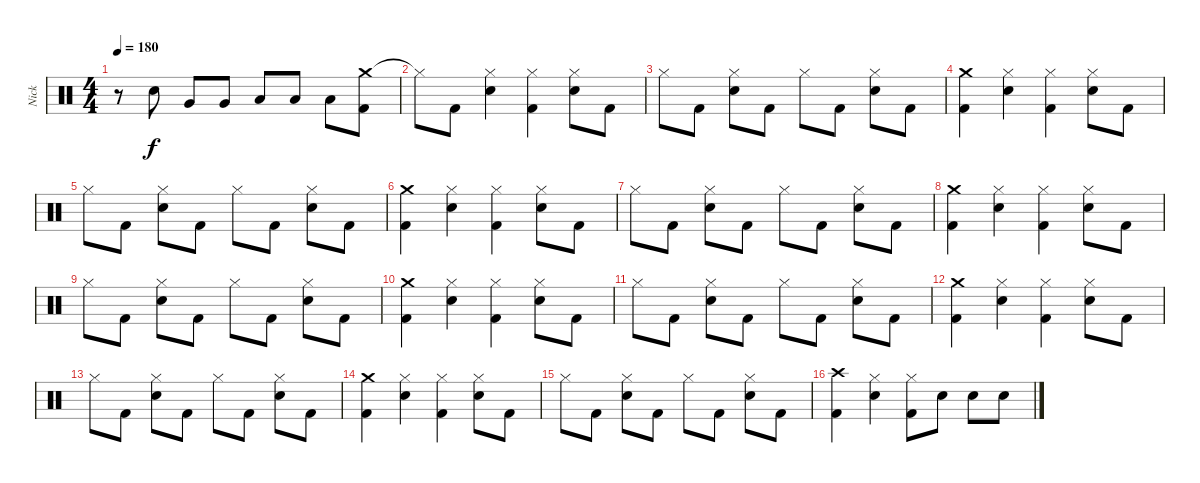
\track ("Nick" "Nick") {instrument percussion}
\staff {score}
\articulation defaults
\ts (4 4)
\tempo 180
\clef neutral
\ks c
r.8{dy f} "Electric Snare (hit)".8 "Very Low Tom (hit)".8 "Very Low Tom (hit)".8 "Low Floor Tom (hit)".8 "Low Floor Tom (hit)".8 "Low Floor Tom (hit)".8 ("Crash medium (hit)" "Kick (hit) 2").8 |
"Hi-Hat (closed)"{t}.8 "Kick (hit) 2".8 ("Hi-Hat (closed)" "Electric Snare (hit)").4 ("Hi-Hat (closed)" "Kick (hit) 2").4 ("Hi-Hat (closed)" "Electric Snare (hit)").8 "Kick (hit) 2".8 |
"Hi-Hat (closed)".8 "Kick (hit) 2".8 ("Hi-Hat (closed)" "Electric Snare (hit)").8 "Kick (hit) 2".8 "Hi-Hat (closed)".8 "Kick (hit) 2".8 ("Hi-Hat (closed)" "Electric Snare (hit)").8 "Kick (hit) 2".8 |
("Crash medium (hit)" "Kick (hit) 2").4 ("Hi-Hat (closed)" "Electric Snare (hit)").4 ("Hi-Hat (closed)" "Kick (hit) 2").4 ("Hi-Hat (closed)" "Electric Snare (hit)").8 "Kick (hit) 2".8 |
"Hi-Hat (closed)".8 "Kick (hit) 2".8 ("Hi-Hat (closed)" "Electric Snare (hit)").8 "Kick (hit) 2".8 "Hi-Hat (closed)".8 "Kick (hit) 2".8 ("Hi-Hat (closed)" "Electric Snare (hit)").8 "Kick (hit) 2".8 |
("Crash medium (hit)" "Kick (hit) 2").4 ("Hi-Hat (closed)" "Electric Snare (hit)").4 ("Hi-Hat (closed)" "Kick (hit) 2").4 ("Hi-Hat (closed)" "Electric Snare (hit)").8 "Kick (hit) 2".8 |
"Hi-Hat (closed)".8 "Kick (hit) 2".8 ("Hi-Hat (closed)" "Electric Snare (hit)").8 "Kick (hit) 2".8 "Hi-Hat (closed)".8 "Kick (hit) 2".8 ("Hi-Hat (closed)" "Electric Snare (hit)").8 "Kick (hit) 2".8 |
("Crash medium (hit)" "Kick (hit) 2").4 ("Hi-Hat (closed)" "Electric Snare (hit)").4 ("Hi-Hat (closed)" "Kick (hit) 2").4 ("Hi-Hat (closed)" "Electric Snare (hit)").8 "Kick (hit) 2".8 |
"Hi-Hat (closed)".8 "Kick (hit) 2".8 ("Hi-Hat (closed)" "Electric Snare (hit)").8 "Kick (hit) 2".8 "Hi-Hat (closed)".8 "Kick (hit) 2".8 ("Hi-Hat (closed)" "Electric Snare (hit)").8 "Kick (hit) 2".8 |
("Crash medium (hit)" "Kick (hit) 2").4 ("Hi-Hat (closed)" "Electric Snare (hit)").4 ("Hi-Hat (closed)" "Kick (hit) 2").4 ("Hi-Hat (closed)" "Electric Snare (hit)").8 "Kick (hit) 2".8 |
"Hi-Hat (closed)".8 "Kick (hit) 2".8 ("Hi-Hat (closed)" "Electric Snare (hit)").8 "Kick (hit) 2".8 "Hi-Hat (closed)".8 "Kick (hit) 2".8 ("Hi-Hat (closed)" "Electric Snare (hit)").8 "Kick (hit) 2".8 |
("Crash medium (hit)" "Kick (hit) 2").4 ("Hi-Hat (closed)" "Electric Snare (hit)").4 ("Hi-Hat (closed)" "Kick (hit) 2").4 ("Hi-Hat (closed)" "Electric Snare (hit)").8 "Kick (hit) 2".8 |
"Hi-Hat (closed)".8 "Kick (hit) 2".8 ("Hi-Hat (closed)" "Electric Snare (hit)").8 "Kick (hit) 2".8 "Hi-Hat (closed)".8 "Kick (hit) 2".8 ("Hi-Hat (closed)" "Electric Snare (hit)").8 "Kick (hit) 2".8 |
("Crash medium (hit)" "Kick (hit) 2").4 ("Hi-Hat (closed)" "Electric Snare (hit)").4 ("Hi-Hat (closed)" "Kick (hit) 2").4 ("Hi-Hat (closed)" "Electric Snare (hit)").8 "Kick (hit) 2".8 |
"Hi-Hat (closed)".8 "Kick (hit) 2".8 ("Hi-Hat (closed)" "Electric Snare (hit)").8 "Kick (hit) 2".8 "Hi-Hat (closed)".8 "Kick (hit) 2".8 ("Hi-Hat (closed)" "Electric Snare (hit)").8 "Kick (hit) 2".8 |
("Crash high (hit)" "Kick (hit) 2").4 ("Hi-Hat (closed)" "Electric Snare (hit)").4 ("Hi-Hat (closed)" "Kick (hit) 2").8 "Electric Snare (hit)".8 "Electric Snare (hit)".8 "Electric Snare (hit)".8
